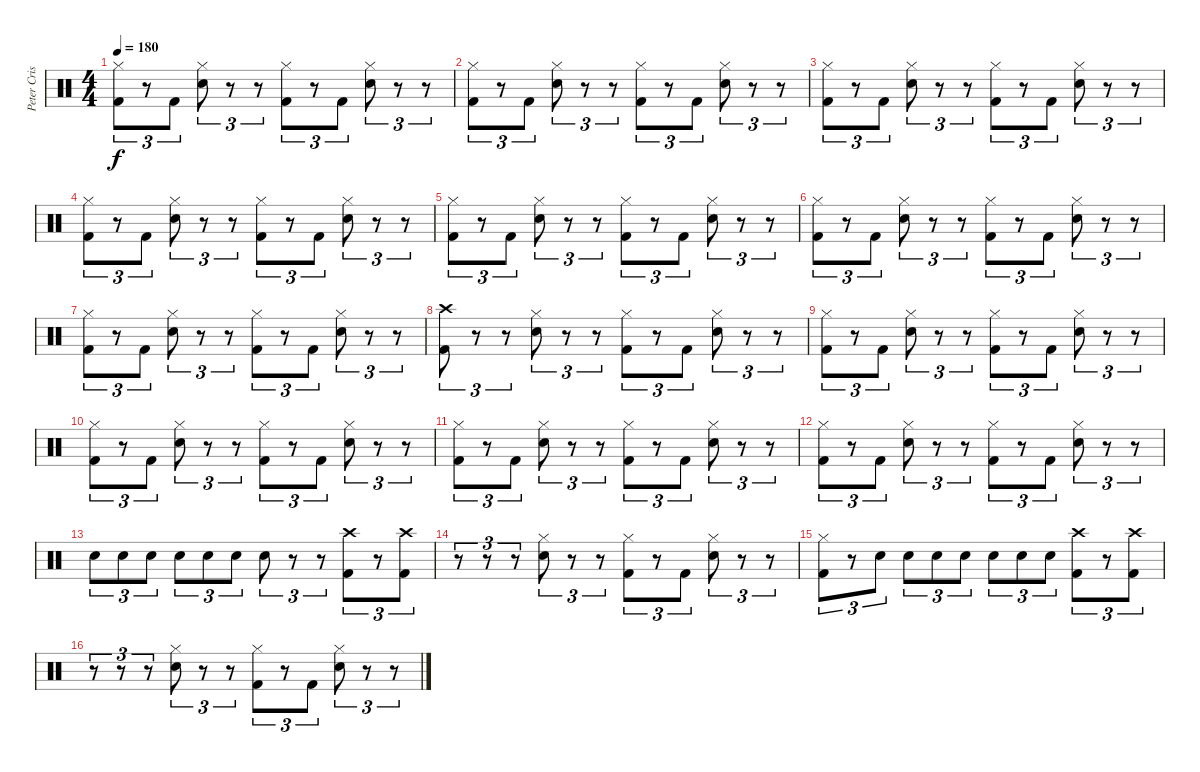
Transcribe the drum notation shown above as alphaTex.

\track ("Peter Criss" "Peter Cris") {instrument percussion}
\staff {score}
\articulation defaults
\ts (4 4)
\tempo 180
\clef neutral
\ks c
("Hi-Hat (closed)" "Kick (hit) 2").8{tu (3 2) dy f} r.8{tu (3 2)} "Kick (hit) 2".8{tu (3 2)} ("Hi-Hat (closed)" "Electric Snare (hit)").8{tu (3 2)} r.8{tu (3 2)} r.8{tu (3 2)} ("Hi-Hat (closed)" "Kick (hit) 2").8{tu (3 2)} r.8{tu (3 2)} "Kick (hit) 2".8{tu (3 2)} ("Hi-Hat (closed)" "Electric Snare (hit)").8{tu (3 2)} r.8{tu (3 2)} r.8{tu (3 2)} |
("Hi-Hat (closed)" "Kick (hit) 2").8{tu (3 2)} r.8{tu (3 2)} "Kick (hit) 2".8{tu (3 2)} ("Hi-Hat (closed)" "Electric Snare (hit)").8{tu (3 2)} r.8{tu (3 2)} r.8{tu (3 2)} ("Hi-Hat (closed)" "Kick (hit) 2").8{tu (3 2)} r.8{tu (3 2)} "Kick (hit) 2".8{tu (3 2)} ("Hi-Hat (closed)" "Electric Snare (hit)").8{tu (3 2)} r.8{tu (3 2)} r.8{tu (3 2)} |
("Hi-Hat (closed)" "Kick (hit) 2").8{tu (3 2)} r.8{tu (3 2)} "Kick (hit) 2".8{tu (3 2)} ("Hi-Hat (closed)" "Electric Snare (hit)").8{tu (3 2)} r.8{tu (3 2)} r.8{tu (3 2)} ("Hi-Hat (closed)" "Kick (hit) 2").8{tu (3 2)} r.8{tu (3 2)} "Kick (hit) 2".8{tu (3 2)} ("Hi-Hat (closed)" "Electric Snare (hit)").8{tu (3 2)} r.8{tu (3 2)} r.8{tu (3 2)} |
("Hi-Hat (closed)" "Kick (hit) 2").8{tu (3 2)} r.8{tu (3 2)} "Kick (hit) 2".8{tu (3 2)} ("Hi-Hat (closed)" "Electric Snare (hit)").8{tu (3 2)} r.8{tu (3 2)} r.8{tu (3 2)} ("Hi-Hat (closed)" "Kick (hit) 2").8{tu (3 2)} r.8{tu (3 2)} "Kick (hit) 2".8{tu (3 2)} ("Hi-Hat (closed)" "Electric Snare (hit)").8{tu (3 2)} r.8{tu (3 2)} r.8{tu (3 2)} |
("Hi-Hat (closed)" "Kick (hit) 2").8{tu (3 2)} r.8{tu (3 2)} "Kick (hit) 2".8{tu (3 2)} ("Hi-Hat (closed)" "Electric Snare (hit)").8{tu (3 2)} r.8{tu (3 2)} r.8{tu (3 2)} ("Hi-Hat (closed)" "Kick (hit) 2").8{tu (3 2)} r.8{tu (3 2)} "Kick (hit) 2".8{tu (3 2)} ("Hi-Hat (closed)" "Electric Snare (hit)").8{tu (3 2)} r.8{tu (3 2)} r.8{tu (3 2)} |
("Hi-Hat (closed)" "Kick (hit) 2").8{tu (3 2)} r.8{tu (3 2)} "Kick (hit) 2".8{tu (3 2)} ("Hi-Hat (closed)" "Electric Snare (hit)").8{tu (3 2)} r.8{tu (3 2)} r.8{tu (3 2)} ("Hi-Hat (closed)" "Kick (hit) 2").8{tu (3 2)} r.8{tu (3 2)} "Kick (hit) 2".8{tu (3 2)} ("Hi-Hat (closed)" "Electric Snare (hit)").8{tu (3 2)} r.8{tu (3 2)} r.8{tu (3 2)} |
("Hi-Hat (closed)" "Kick (hit) 2").8{tu (3 2)} r.8{tu (3 2)} "Kick (hit) 2".8{tu (3 2)} ("Hi-Hat (closed)" "Electric Snare (hit)").8{tu (3 2)} r.8{tu (3 2)} r.8{tu (3 2)} ("Hi-Hat (closed)" "Kick (hit) 2").8{tu (3 2)} r.8{tu (3 2)} "Kick (hit) 2".8{tu (3 2)} ("Hi-Hat (closed)" "Electric Snare (hit)").8{tu (3 2)} r.8{tu (3 2)} r.8{tu (3 2)} |
("Crash high (hit)" "Kick (hit) 2").8{tu (3 2)} r.8{tu (3 2)} r.8{tu (3 2)} ("Hi-Hat (closed)" "Electric Snare (hit)").8{tu (3 2)} r.8{tu (3 2)} r.8{tu (3 2)} ("Hi-Hat (closed)" "Kick (hit) 2").8{tu (3 2)} r.8{tu (3 2)} "Kick (hit) 2".8{tu (3 2)} ("Hi-Hat (closed)" "Electric Snare (hit)").8{tu (3 2)} r.8{tu (3 2)} r.8{tu (3 2)} |
("Hi-Hat (closed)" "Kick (hit) 2").8{tu (3 2)} r.8{tu (3 2)} "Kick (hit) 2".8{tu (3 2)} ("Hi-Hat (closed)" "Electric Snare (hit)").8{tu (3 2)} r.8{tu (3 2)} r.8{tu (3 2)} ("Hi-Hat (closed)" "Kick (hit) 2").8{tu (3 2)} r.8{tu (3 2)} "Kick (hit) 2".8{tu (3 2)} ("Hi-Hat (closed)" "Electric Snare (hit)").8{tu (3 2)} r.8{tu (3 2)} r.8{tu (3 2)} |
("Hi-Hat (closed)" "Kick (hit) 2").8{tu (3 2)} r.8{tu (3 2)} "Kick (hit) 2".8{tu (3 2)} ("Hi-Hat (closed)" "Electric Snare (hit)").8{tu (3 2)} r.8{tu (3 2)} r.8{tu (3 2)} ("Hi-Hat (closed)" "Kick (hit) 2").8{tu (3 2)} r.8{tu (3 2)} "Kick (hit) 2".8{tu (3 2)} ("Hi-Hat (closed)" "Electric Snare (hit)").8{tu (3 2)} r.8{tu (3 2)} r.8{tu (3 2)} |
("Hi-Hat (closed)" "Kick (hit) 2").8{tu (3 2)} r.8{tu (3 2)} "Kick (hit) 2".8{tu (3 2)} ("Hi-Hat (closed)" "Electric Snare (hit)").8{tu (3 2)} r.8{tu (3 2)} r.8{tu (3 2)} ("Hi-Hat (closed)" "Kick (hit) 2").8{tu (3 2)} r.8{tu (3 2)} "Kick (hit) 2".8{tu (3 2)} ("Hi-Hat (closed)" "Electric Snare (hit)").8{tu (3 2)} r.8{tu (3 2)} r.8{tu (3 2)} |
("Hi-Hat (closed)" "Kick (hit) 2").8{tu (3 2)} r.8{tu (3 2)} "Kick (hit) 2".8{tu (3 2)} ("Hi-Hat (closed)" "Electric Snare (hit)").8{tu (3 2)} r.8{tu (3 2)} r.8{tu (3 2)} ("Hi-Hat (closed)" "Kick (hit) 2").8{tu (3 2)} r.8{tu (3 2)} "Kick (hit) 2".8{tu (3 2)} ("Hi-Hat (closed)" "Electric Snare (hit)").8{tu (3 2)} r.8{tu (3 2)} r.8{tu (3 2)} |
"Electric Snare (hit)".8{tu (3 2)} "Electric Snare (hit)".8{tu (3 2)} "Electric Snare (hit)".8{tu (3 2)} "Electric Snare (hit)".8{tu (3 2)} "Electric Snare (hit)".8{tu (3 2)} "Electric Snare (hit)".8{tu (3 2)} "Electric Snare (hit)".8{tu (3 2)} r.8{tu (3 2)} r.8{tu (3 2)} ("Crash high (hit)" "Kick (hit) 2").8{tu (3 2)} r.8{tu (3 2)} ("Crash high (hit)" "Kick (hit) 2").8{tu (3 2)} |
r.8{tu (3 2)} r.8{tu (3 2)} r.8{tu (3 2)} ("Hi-Hat (closed)" "Electric Snare (hit)").8{tu (3 2)} r.8{tu (3 2)} r.8{tu (3 2)} ("Hi-Hat (closed)" "Kick (hit) 2").8{tu (3 2)} r.8{tu (3 2)} "Kick (hit) 2".8{tu (3 2)} ("Hi-Hat (closed)" "Electric Snare (hit)").8{tu (3 2)} r.8{tu (3 2)} r.8{tu (3 2)} |
("Hi-Hat (closed)" "Kick (hit) 2").8{tu (3 2)} r.8{tu (3 2)} "Electric Snare (hit)".8{tu (3 2)} "Electric Snare (hit)".8{tu (3 2)} "Electric Snare (hit)".8{tu (3 2)} "Electric Snare (hit)".8{tu (3 2)} "Electric Snare (hit)".8{tu (3 2)} "Electric Snare (hit)".8{tu (3 2)} "Electric Snare (hit)".8{tu (3 2)} ("Crash high (hit)" "Kick (hit) 2").8{tu (3 2)} r.8{tu (3 2)} ("Crash high (hit)" "Kick (hit) 2").8{tu (3 2)} |
r.8{tu (3 2)} r.8{tu (3 2)} r.8{tu (3 2)} ("Hi-Hat (closed)" "Electric Snare (hit)").8{tu (3 2)} r.8{tu (3 2)} r.8{tu (3 2)} ("Hi-Hat (closed)" "Kick (hit) 2").8{tu (3 2)} r.8{tu (3 2)} "Kick (hit) 2".8{tu (3 2)} ("Hi-Hat (closed)" "Electric Snare (hit)").8{tu (3 2)} r.8{tu (3 2)} r.8{tu (3 2)}
